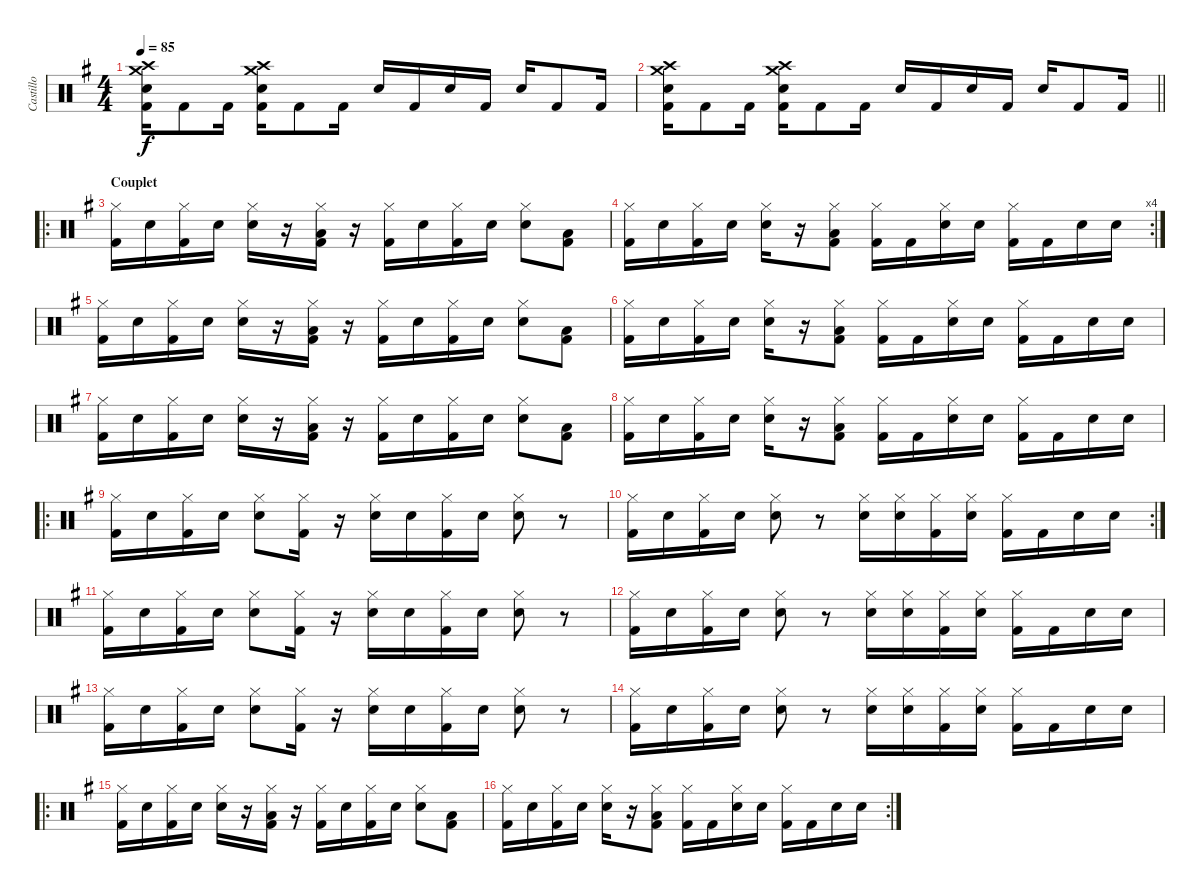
\track ("Castillo" "Castillo") {instrument percussion}
\staff {score}
\articulation defaults
\ts (4 4)
\tempo 85
\clef neutral
\ks g
("Kick (hit) 2" "Electric Snare (hit)" "Crash high (hit)" "Crash medium (hit)").16{dy f} "Kick (hit) 2".8 "Kick (hit) 2".16 ("Kick (hit) 2" "Electric Snare (hit)" "Crash high (hit)" "Crash medium (hit)").16 "Kick (hit) 2".8 "Kick (hit) 2".16 "Electric Snare (hit)".16 "Kick (hit) 2".16 "Electric Snare (hit)".16 "Kick (hit) 2".16 "Electric Snare (hit)".16 "Kick (hit) 2".8 "Kick (hit) 2".16 |
\barLineRight lightlight
("Kick (hit) 2" "Electric Snare (hit)" "Crash high (hit)" "Crash medium (hit)").16 "Kick (hit) 2".8 "Kick (hit) 2".16 ("Kick (hit) 2" "Electric Snare (hit)" "Crash high (hit)" "Crash medium (hit)").16 "Kick (hit) 2".8 "Kick (hit) 2".16 "Electric Snare (hit)".16 "Kick (hit) 2".16 "Electric Snare (hit)".16 "Kick (hit) 2".16 "Electric Snare (hit)".16 "Kick (hit) 2".8 "Kick (hit) 2".16 |
\ro
\section ("" "Couplet")
("Hi-Hat (closed)" "Kick (hit) 2").16 "Electric Snare (hit)".16 ("Hi-Hat (closed)" "Kick (hit) 2").16 "Electric Snare (hit)".16 ("Hi-Hat (closed)" "Electric Snare (hit)").16 r.16 ("Hi-Hat (closed)" "Kick (hit) 2" "Low Floor Tom (hit)").16 r.16 ("Hi-Hat (closed)" "Kick (hit) 2").16 "Electric Snare (hit)".16 ("Hi-Hat (closed)" "Kick (hit) 2").16 "Electric Snare (hit)".16 ("Hi-Hat (closed)" "Electric Snare (hit)").8 ("Kick (hit) 2" "Low Floor Tom (hit)").8 |
\rc 4
("Hi-Hat (closed)" "Kick (hit) 2").16 "Electric Snare (hit)".16 ("Hi-Hat (closed)" "Kick (hit) 2").16 "Electric Snare (hit)".16 ("Hi-Hat (closed)" "Electric Snare (hit)").16 r.16 ("Hi-Hat (closed)" "Kick (hit) 2" "Low Floor Tom (hit)").8 ("Hi-Hat (closed)" "Kick (hit) 2").16 "Kick (hit) 2".16 ("Hi-Hat (closed)" "Electric Snare (hit)").16 "Electric Snare (hit)".16 ("Hi-Hat (closed)" "Kick (hit) 2").16 "Kick (hit) 2".16 "Electric Snare (hit)".16 "Electric Snare (hit)".16 |
("Hi-Hat (closed)" "Kick (hit) 2").16 "Electric Snare (hit)".16 ("Hi-Hat (closed)" "Kick (hit) 2").16 "Electric Snare (hit)".16 ("Hi-Hat (closed)" "Electric Snare (hit)").16 r.16 ("Hi-Hat (closed)" "Kick (hit) 2" "Low Floor Tom (hit)").16 r.16 ("Hi-Hat (closed)" "Kick (hit) 2").16 "Electric Snare (hit)".16 ("Hi-Hat (closed)" "Kick (hit) 2").16 "Electric Snare (hit)".16 ("Hi-Hat (closed)" "Electric Snare (hit)").8 ("Kick (hit) 2" "Low Floor Tom (hit)").8 |
("Hi-Hat (closed)" "Kick (hit) 2").16 "Electric Snare (hit)".16 ("Hi-Hat (closed)" "Kick (hit) 2").16 "Electric Snare (hit)".16 ("Hi-Hat (closed)" "Electric Snare (hit)").16 r.16 ("Hi-Hat (closed)" "Kick (hit) 2" "Low Floor Tom (hit)").8 ("Hi-Hat (closed)" "Kick (hit) 2").16 "Kick (hit) 2".16 ("Hi-Hat (closed)" "Electric Snare (hit)").16 "Electric Snare (hit)".16 ("Hi-Hat (closed)" "Kick (hit) 2").16 "Kick (hit) 2".16 "Electric Snare (hit)".16 "Electric Snare (hit)".16 |
("Hi-Hat (closed)" "Kick (hit) 2").16 "Electric Snare (hit)".16 ("Hi-Hat (closed)" "Kick (hit) 2").16 "Electric Snare (hit)".16 ("Hi-Hat (closed)" "Electric Snare (hit)").16 r.16 ("Hi-Hat (closed)" "Kick (hit) 2" "Low Floor Tom (hit)").16 r.16 ("Hi-Hat (closed)" "Kick (hit) 2").16 "Electric Snare (hit)".16 ("Hi-Hat (closed)" "Kick (hit) 2").16 "Electric Snare (hit)".16 ("Hi-Hat (closed)" "Electric Snare (hit)").8 ("Kick (hit) 2" "Low Floor Tom (hit)").8 |
("Hi-Hat (closed)" "Kick (hit) 2").16 "Electric Snare (hit)".16 ("Hi-Hat (closed)" "Kick (hit) 2").16 "Electric Snare (hit)".16 ("Hi-Hat (closed)" "Electric Snare (hit)").16 r.16 ("Hi-Hat (closed)" "Kick (hit) 2" "Low Floor Tom (hit)").8 ("Hi-Hat (closed)" "Kick (hit) 2").16 "Kick (hit) 2".16 ("Hi-Hat (closed)" "Electric Snare (hit)").16 "Electric Snare (hit)".16 ("Hi-Hat (closed)" "Kick (hit) 2").16 "Kick (hit) 2".16 "Electric Snare (hit)".16 "Electric Snare (hit)".16 |
\ro
("Hi-Hat (closed)" "Kick (hit) 2").16 "Electric Snare (hit)".16 ("Hi-Hat (closed)" "Kick (hit) 2").16 "Electric Snare (hit)".16 ("Hi-Hat (closed)" "Electric Snare (hit)").8 ("Hi-Hat (closed)" "Kick (hit) 2").16 r.16 ("Hi-Hat (closed)" "Electric Snare (hit)").16 "Electric Snare (hit)".16 ("Hi-Hat (closed)" "Kick (hit) 2").16 "Electric Snare (hit)".16 ("Hi-Hat (closed)" "Electric Snare (hit)").8 r.8 |
\rc 2
("Hi-Hat (closed)" "Kick (hit) 2").16 "Electric Snare (hit)".16 ("Hi-Hat (closed)" "Kick (hit) 2").16 "Electric Snare (hit)".16 ("Hi-Hat (closed)" "Electric Snare (hit)").8 r.8 ("Hi-Hat (closed)" "Electric Snare (hit)").16 ("Hi-Hat (closed)" "Electric Snare (hit)").16 ("Hi-Hat (closed)" "Kick (hit) 2").16 ("Hi-Hat (closed)" "Electric Snare (hit)").16 ("Hi-Hat (closed)" "Kick (hit) 2").16 "Kick (hit) 2".16 "Electric Snare (hit)".16 "Electric Snare (hit)".16 |
("Hi-Hat (closed)" "Kick (hit) 2").16 "Electric Snare (hit)".16 ("Hi-Hat (closed)" "Kick (hit) 2").16 "Electric Snare (hit)".16 ("Hi-Hat (closed)" "Electric Snare (hit)").8 ("Hi-Hat (closed)" "Kick (hit) 2").16 r.16 ("Hi-Hat (closed)" "Electric Snare (hit)").16 "Electric Snare (hit)".16 ("Hi-Hat (closed)" "Kick (hit) 2").16 "Electric Snare (hit)".16 ("Hi-Hat (closed)" "Electric Snare (hit)").8 r.8 |
("Hi-Hat (closed)" "Kick (hit) 2").16 "Electric Snare (hit)".16 ("Hi-Hat (closed)" "Kick (hit) 2").16 "Electric Snare (hit)".16 ("Hi-Hat (closed)" "Electric Snare (hit)").8 r.8 ("Hi-Hat (closed)" "Electric Snare (hit)").16 ("Hi-Hat (closed)" "Electric Snare (hit)").16 ("Hi-Hat (closed)" "Kick (hit) 2").16 ("Hi-Hat (closed)" "Electric Snare (hit)").16 ("Hi-Hat (closed)" "Kick (hit) 2").16 "Kick (hit) 2".16 "Electric Snare (hit)".16 "Electric Snare (hit)".16 |
("Hi-Hat (closed)" "Kick (hit) 2").16 "Electric Snare (hit)".16 ("Hi-Hat (closed)" "Kick (hit) 2").16 "Electric Snare (hit)".16 ("Hi-Hat (closed)" "Electric Snare (hit)").8 ("Hi-Hat (closed)" "Kick (hit) 2").16 r.16 ("Hi-Hat (closed)" "Electric Snare (hit)").16 "Electric Snare (hit)".16 ("Hi-Hat (closed)" "Kick (hit) 2").16 "Electric Snare (hit)".16 ("Hi-Hat (closed)" "Electric Snare (hit)").8 r.8 |
("Hi-Hat (closed)" "Kick (hit) 2").16 "Electric Snare (hit)".16 ("Hi-Hat (closed)" "Kick (hit) 2").16 "Electric Snare (hit)".16 ("Hi-Hat (closed)" "Electric Snare (hit)").8 r.8 ("Hi-Hat (closed)" "Electric Snare (hit)").16 ("Hi-Hat (closed)" "Electric Snare (hit)").16 ("Hi-Hat (closed)" "Kick (hit) 2").16 ("Hi-Hat (closed)" "Electric Snare (hit)").16 ("Hi-Hat (closed)" "Kick (hit) 2").16 "Kick (hit) 2".16 "Electric Snare (hit)".16 "Electric Snare (hit)".16 |
\ro
("Hi-Hat (closed)" "Kick (hit) 2").16 "Electric Snare (hit)".16 ("Hi-Hat (closed)" "Kick (hit) 2").16 "Electric Snare (hit)".16 ("Hi-Hat (closed)" "Electric Snare (hit)").16 r.16 ("Hi-Hat (closed)" "Kick (hit) 2" "Low Floor Tom (hit)").16 r.16 ("Hi-Hat (closed)" "Kick (hit) 2").16 "Electric Snare (hit)".16 ("Hi-Hat (closed)" "Kick (hit) 2").16 "Electric Snare (hit)".16 ("Hi-Hat (closed)" "Electric Snare (hit)").8 ("Kick (hit) 2" "Low Floor Tom (hit)").8 |
\rc 2
("Hi-Hat (closed)" "Kick (hit) 2").16 "Electric Snare (hit)".16 ("Hi-Hat (closed)" "Kick (hit) 2").16 "Electric Snare (hit)".16 ("Hi-Hat (closed)" "Electric Snare (hit)").16 r.16 ("Hi-Hat (closed)" "Kick (hit) 2" "Low Floor Tom (hit)").8 ("Hi-Hat (closed)" "Kick (hit) 2").16 "Kick (hit) 2".16 ("Hi-Hat (closed)" "Electric Snare (hit)").16 "Electric Snare (hit)".16 ("Hi-Hat (closed)" "Kick (hit) 2").16 "Kick (hit) 2".16 "Electric Snare (hit)".16 "Electric Snare (hit)".16
